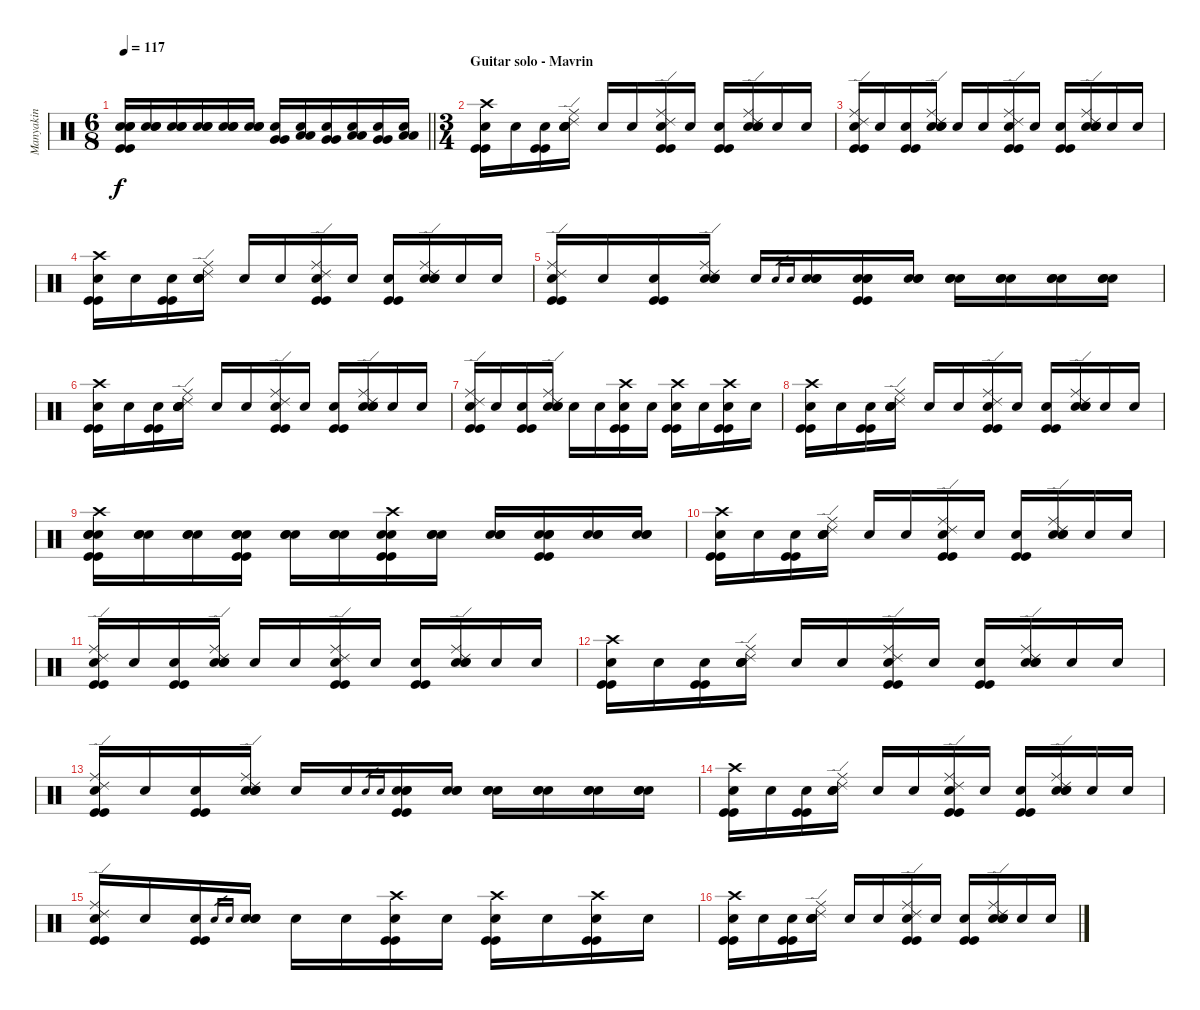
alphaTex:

\track ("Manyakin" "Manyakin") {instrument percussion}
\staff {score}
\articulation defaults
\ts (6 8)
\tempo 117
\clef neutral
\barLineRight lightlight
\ks c
("Kick (hit)" "Kick (hit)" "Electric Snare (hit)" "Electric Snare (hit)" "Snare (hit)"{x}).16{dy f} ("Electric Snare (hit)" "Electric Snare (hit)" "Snare (hit)"{x}).16 ("Electric Snare (hit)" "Electric Snare (hit)" "Snare (hit)"{x}).16 ("Electric Snare (hit)" "Electric Snare (hit)" "Snare (hit)"{x}).16 ("Electric Snare (hit)" "Electric Snare (hit)" "Snare (hit)"{x}).16 ("Electric Snare (hit)" "Electric Snare (hit)" "Snare (hit)"{x}).16 ("Very Low Tom (hit)" "Very Low Tom (hit)" "Snare (hit)"{x}).16 ("Low Floor Tom (hit)" "Low Floor Tom (hit)" "Snare (hit)"{x}).16 ("Very Low Tom (hit)" "Very Low Tom (hit)" "Snare (hit)"{x}).16 ("Low Tom (hit)" "Low Tom (hit)" "Snare (hit)"{x}).16 ("Very Low Tom (hit)" "Very Low Tom (hit)" "Snare (hit)"{x}).16 ("Low Floor Tom (hit)" "Low Floor Tom (hit)" "Snare (hit)"{x}).16 |
\ts (3 4)
\section ("" "Guitar solo - Mavrin")
("Crash high (hit)" "Kick (hit)" "Kick (hit)" "Snare (hit)"{x}).16 "Snare (hit)"{x}.16 ("Kick (hit)" "Kick (hit)" "Snare (hit)"{x}).16 ("Ride (middle)" "Ride (edge) 2" "Electric Snare (hit)" "Electric Snare (hit)" "Snare (hit)"{x}).16 "Snare (hit)"{x}.16 "Snare (hit)"{x}.16 ("Ride (middle)" "Ride (edge) 2" "Kick (hit)" "Kick (hit)" "Snare (hit)"{x}).16 "Snare (hit)"{x}.16 ("Kick (hit)" "Kick (hit)" "Snare (hit)"{x}).16 ("Ride (middle)" "Ride (edge) 2" "Electric Snare (hit)" "Electric Snare (hit)" "Snare (hit)"{x}).16 "Snare (hit)"{x}.16 "Snare (hit)"{x}.16 |
("Ride (middle)" "Ride (edge) 2" "Kick (hit)" "Kick (hit)" "Snare (hit)"{x}).16 "Snare (hit)"{x}.16 ("Kick (hit)" "Kick (hit)" "Snare (hit)"{x}).16 ("Ride (middle)" "Ride (edge) 2" "Electric Snare (hit)" "Electric Snare (hit)" "Snare (hit)"{x}).16 "Snare (hit)"{x}.16 "Snare (hit)"{x}.16 ("Ride (middle)" "Ride (edge) 2" "Kick (hit)" "Kick (hit)" "Snare (hit)"{x}).16 "Snare (hit)"{x}.16 ("Kick (hit)" "Kick (hit)" "Snare (hit)"{x}).16 ("Ride (middle)" "Ride (edge) 2" "Electric Snare (hit)" "Electric Snare (hit)" "Snare (hit)"{x}).16 "Snare (hit)"{x}.16 "Snare (hit)"{x}.16 |
("Crash high (hit)" "Kick (hit)" "Kick (hit)" "Snare (hit)"{x}).16 "Snare (hit)"{x}.16 ("Kick (hit)" "Kick (hit)" "Snare (hit)"{x}).16 ("Ride (middle)" "Ride (edge) 2" "Electric Snare (hit)" "Electric Snare (hit)" "Snare (hit)"{x}).16 "Snare (hit)"{x}.16 "Snare (hit)"{x}.16 ("Ride (middle)" "Ride (edge) 2" "Kick (hit)" "Kick (hit)" "Snare (hit)"{x}).16 "Snare (hit)"{x}.16 ("Kick (hit)" "Kick (hit)" "Snare (hit)"{x}).16 ("Ride (middle)" "Ride (edge) 2" "Electric Snare (hit)" "Electric Snare (hit)" "Snare (hit)"{x}).16 "Snare (hit)"{x}.16 "Snare (hit)"{x}.16 |
("Ride (middle)" "Ride (edge) 2" "Kick (hit)" "Kick (hit)" "Snare (hit)"{x}).16 "Snare (hit)"{x}.16 ("Kick (hit)" "Kick (hit)" "Snare (hit)"{x}).16 ("Ride (middle)" "Ride (edge) 2" "Electric Snare (hit)" "Electric Snare (hit)" "Snare (hit)"{x}).16 "Snare (hit)"{x}.16 "Electric Snare (hit)".16{gr} "Electric Snare (hit)".16{gr} ("Electric Snare (hit)" "Electric Snare (hit)" "Snare (hit)"{x}).16 ("Kick (hit)" "Kick (hit)" "Electric Snare (hit)" "Electric Snare (hit)" "Snare (hit)"{x}).16 ("Electric Snare (hit)" "Electric Snare (hit)" "Snare (hit)"{x}).16 ("Electric Snare (hit)" "Electric Snare (hit)" "Snare (hit)"{x}).16 ("Electric Snare (hit)" "Electric Snare (hit)" "Snare (hit)"{x}).16 ("Electric Snare (hit)" "Electric Snare (hit)" "Snare (hit)"{x}).16 ("Electric Snare (hit)" "Electric Snare (hit)" "Snare (hit)"{x}).16 |
("Crash high (hit)" "Kick (hit)" "Kick (hit)" "Snare (hit)"{x}).16 "Snare (hit)"{x}.16 ("Kick (hit)" "Kick (hit)" "Snare (hit)"{x}).16 ("Ride (middle)" "Ride (edge) 2" "Electric Snare (hit)" "Electric Snare (hit)" "Snare (hit)"{x}).16 "Snare (hit)"{x}.16 "Snare (hit)"{x}.16 ("Ride (middle)" "Ride (edge) 2" "Kick (hit)" "Kick (hit)" "Snare (hit)"{x}).16 "Snare (hit)"{x}.16 ("Kick (hit)" "Kick (hit)" "Snare (hit)"{x}).16 ("Ride (middle)" "Ride (edge) 2" "Electric Snare (hit)" "Electric Snare (hit)" "Snare (hit)"{x}).16 "Snare (hit)"{x}.16 "Snare (hit)"{x}.16 |
("Ride (middle)" "Ride (edge) 2" "Kick (hit)" "Kick (hit)" "Snare (hit)"{x}).16 "Snare (hit)"{x}.16 ("Kick (hit)" "Kick (hit)" "Snare (hit)"{x}).16 ("Ride (middle)" "Ride (edge) 2" "Electric Snare (hit)" "Electric Snare (hit)" "Snare (hit)"{x}).16 "Snare (hit)"{x}.16 "Snare (hit)"{x}.16 ("Crash high (hit)" "Kick (hit)" "Kick (hit)" "Snare (hit)"{x}).16 "Snare (hit)"{x}.16 ("Crash high (hit)" "Kick (hit)" "Kick (hit)" "Snare (hit)"{x}).16 "Snare (hit)"{x}.16 ("Crash high (hit)" "Kick (hit)" "Kick (hit)" "Snare (hit)"{x}).16 "Snare (hit)"{x}.16 |
("Crash high (hit)" "Kick (hit)" "Kick (hit)" "Snare (hit)"{x}).16 "Snare (hit)"{x}.16 ("Kick (hit)" "Kick (hit)" "Snare (hit)"{x}).16 ("Ride (middle)" "Ride (edge) 2" "Electric Snare (hit)" "Electric Snare (hit)" "Snare (hit)"{x}).16 "Snare (hit)"{x}.16 "Snare (hit)"{x}.16 ("Ride (middle)" "Ride (edge) 2" "Kick (hit)" "Kick (hit)" "Snare (hit)"{x}).16 "Snare (hit)"{x}.16 ("Kick (hit)" "Kick (hit)" "Snare (hit)"{x}).16 ("Ride (middle)" "Ride (edge) 2" "Electric Snare (hit)" "Electric Snare (hit)" "Snare (hit)"{x}).16 "Snare (hit)"{x}.16 "Snare (hit)"{x}.16 |
("Crash high (hit)" "Kick (hit)" "Kick (hit)" "Electric Snare (hit)" "Electric Snare (hit)" "Snare (hit)"{x}).16 ("Electric Snare (hit)" "Electric Snare (hit)" "Snare (hit)"{x}).16 ("Electric Snare (hit)" "Electric Snare (hit)" "Snare (hit)"{x}).16 ("Kick (hit)" "Kick (hit)" "Electric Snare (hit)" "Electric Snare (hit)" "Snare (hit)"{x}).16 ("Electric Snare (hit)" "Electric Snare (hit)" "Snare (hit)"{x}).16 ("Electric Snare (hit)" "Electric Snare (hit)" "Snare (hit)"{x}).16 ("Kick (hit)" "Kick (hit)" "Electric Snare (hit)" "Electric Snare (hit)" "Crash high (hit)"{x}).16 ("Electric Snare (hit)" "Electric Snare (hit)" "Snare (hit)"{x}).16 ("Electric Snare (hit)" "Electric Snare (hit)" "Snare (hit)"{x}).16 ("Kick (hit)" "Kick (hit)" "Electric Snare (hit)" "Electric Snare (hit)" "Snare (hit)"{x}).16 ("Electric Snare (hit)" "Electric Snare (hit)" "Snare (hit)"{x}).16 ("Electric Snare (hit)" "Electric Snare (hit)" "Snare (hit)"{x}).16 |
("Crash high (hit)" "Kick (hit)" "Kick (hit)" "Snare (hit)"{x}).16 "Snare (hit)"{x}.16 ("Kick (hit)" "Kick (hit)" "Snare (hit)"{x}).16 ("Ride (middle)" "Ride (edge) 2" "Electric Snare (hit)" "Electric Snare (hit)" "Snare (hit)"{x}).16 "Snare (hit)"{x}.16 "Snare (hit)"{x}.16 ("Ride (middle)" "Ride (edge) 2" "Kick (hit)" "Kick (hit)" "Snare (hit)"{x}).16 "Snare (hit)"{x}.16 ("Kick (hit)" "Kick (hit)" "Snare (hit)"{x}).16 ("Ride (middle)" "Ride (edge) 2" "Electric Snare (hit)" "Electric Snare (hit)" "Snare (hit)"{x}).16 "Snare (hit)"{x}.16 "Snare (hit)"{x}.16 |
("Ride (middle)" "Ride (edge) 2" "Kick (hit)" "Kick (hit)" "Snare (hit)"{x}).16 "Snare (hit)"{x}.16 ("Kick (hit)" "Kick (hit)" "Snare (hit)"{x}).16 ("Ride (middle)" "Ride (edge) 2" "Electric Snare (hit)" "Electric Snare (hit)" "Snare (hit)"{x}).16 "Snare (hit)"{x}.16 "Snare (hit)"{x}.16 ("Ride (middle)" "Ride (edge) 2" "Kick (hit)" "Kick (hit)" "Snare (hit)"{x}).16 "Snare (hit)"{x}.16 ("Kick (hit)" "Kick (hit)" "Snare (hit)"{x}).16 ("Ride (middle)" "Ride (edge) 2" "Electric Snare (hit)" "Electric Snare (hit)" "Snare (hit)"{x}).16 "Snare (hit)"{x}.16 "Snare (hit)"{x}.16 |
("Crash high (hit)" "Kick (hit)" "Kick (hit)" "Snare (hit)"{x}).16 "Snare (hit)"{x}.16 ("Kick (hit)" "Kick (hit)" "Snare (hit)"{x}).16 ("Ride (middle)" "Ride (edge) 2" "Electric Snare (hit)" "Electric Snare (hit)" "Snare (hit)"{x}).16 "Snare (hit)"{x}.16 "Snare (hit)"{x}.16 ("Ride (middle)" "Ride (edge) 2" "Kick (hit)" "Kick (hit)" "Snare (hit)"{x}).16 "Snare (hit)"{x}.16 ("Kick (hit)" "Kick (hit)" "Snare (hit)"{x}).16 ("Ride (middle)" "Ride (edge) 2" "Electric Snare (hit)" "Electric Snare (hit)" "Snare (hit)"{x}).16 "Snare (hit)"{x}.16 "Snare (hit)"{x}.16 |
("Ride (middle)" "Ride (edge) 2" "Kick (hit)" "Kick (hit)" "Snare (hit)"{x}).16 "Snare (hit)"{x}.16 ("Kick (hit)" "Kick (hit)" "Snare (hit)"{x}).16 ("Ride (middle)" "Ride (edge) 2" "Electric Snare (hit)" "Electric Snare (hit)" "Snare (hit)"{x}).16 "Snare (hit)"{x}.16 "Snare (hit)"{x}.16 "Electric Snare (hit)".16{gr} "Electric Snare (hit)".16{gr} ("Kick (hit)" "Kick (hit)" "Electric Snare (hit)" "Electric Snare (hit)" "Snare (hit)"{x}).16 ("Electric Snare (hit)" "Electric Snare (hit)" "Snare (hit)"{x}).16 ("Electric Snare (hit)" "Electric Snare (hit)" "Snare (hit)"{x}).16 ("Electric Snare (hit)" "Electric Snare (hit)" "Snare (hit)"{x}).16 ("Electric Snare (hit)" "Electric Snare (hit)" "Snare (hit)"{x}).16 ("Electric Snare (hit)" "Electric Snare (hit)" "Snare (hit)"{x}).16 |
("Crash high (hit)" "Kick (hit)" "Kick (hit)" "Snare (hit)"{x}).16 "Snare (hit)"{x}.16 ("Kick (hit)" "Kick (hit)" "Snare (hit)"{x}).16 ("Ride (middle)" "Ride (edge) 2" "Electric Snare (hit)" "Electric Snare (hit)" "Snare (hit)"{x}).16 "Snare (hit)"{x}.16 "Snare (hit)"{x}.16 ("Ride (middle)" "Ride (edge) 2" "Kick (hit)" "Kick (hit)" "Snare (hit)"{x}).16 "Snare (hit)"{x}.16 ("Kick (hit)" "Kick (hit)" "Snare (hit)"{x}).16 ("Ride (middle)" "Ride (edge) 2" "Electric Snare (hit)" "Electric Snare (hit)" "Snare (hit)"{x}).16 "Snare (hit)"{x}.16 "Snare (hit)"{x}.16 |
("Ride (middle)" "Ride (edge) 2" "Kick (hit)" "Kick (hit)" "Snare (hit)"{x}).16 "Snare (hit)"{x}.16 ("Kick (hit)" "Kick (hit)" "Snare (hit)"{x}).16 "Electric Snare (hit)".16{gr} "Electric Snare (hit)".16{gr} ("Electric Snare (hit)" "Electric Snare (hit)" "Snare (hit)"{x}).16 "Snare (hit)"{x}.16 "Snare (hit)"{x}.16 ("Crash high (hit)" "Kick (hit)" "Kick (hit)" "Snare (hit)"{x}).16 "Snare (hit)"{x}.16 ("Crash high (hit)" "Kick (hit)" "Kick (hit)" "Snare (hit)"{x}).16 "Snare (hit)"{x}.16 ("Crash high (hit)" "Kick (hit)" "Kick (hit)" "Snare (hit)"{x}).16 "Snare (hit)"{x}.16 |
("Crash high (hit)" "Kick (hit)" "Kick (hit)" "Snare (hit)"{x}).16 "Snare (hit)"{x}.16 ("Kick (hit)" "Kick (hit)" "Snare (hit)"{x}).16 ("Ride (middle)" "Ride (edge) 2" "Electric Snare (hit)" "Electric Snare (hit)" "Snare (hit)"{x}).16 "Snare (hit)"{x}.16 "Snare (hit)"{x}.16 ("Ride (middle)" "Ride (edge) 2" "Kick (hit)" "Kick (hit)" "Snare (hit)"{x}).16 "Snare (hit)"{x}.16 ("Kick (hit)" "Kick (hit)" "Snare (hit)"{x}).16 ("Ride (middle)" "Ride (edge) 2" "Electric Snare (hit)" "Electric Snare (hit)" "Snare (hit)"{x}).16 "Snare (hit)"{x}.16 "Snare (hit)"{x}.16
